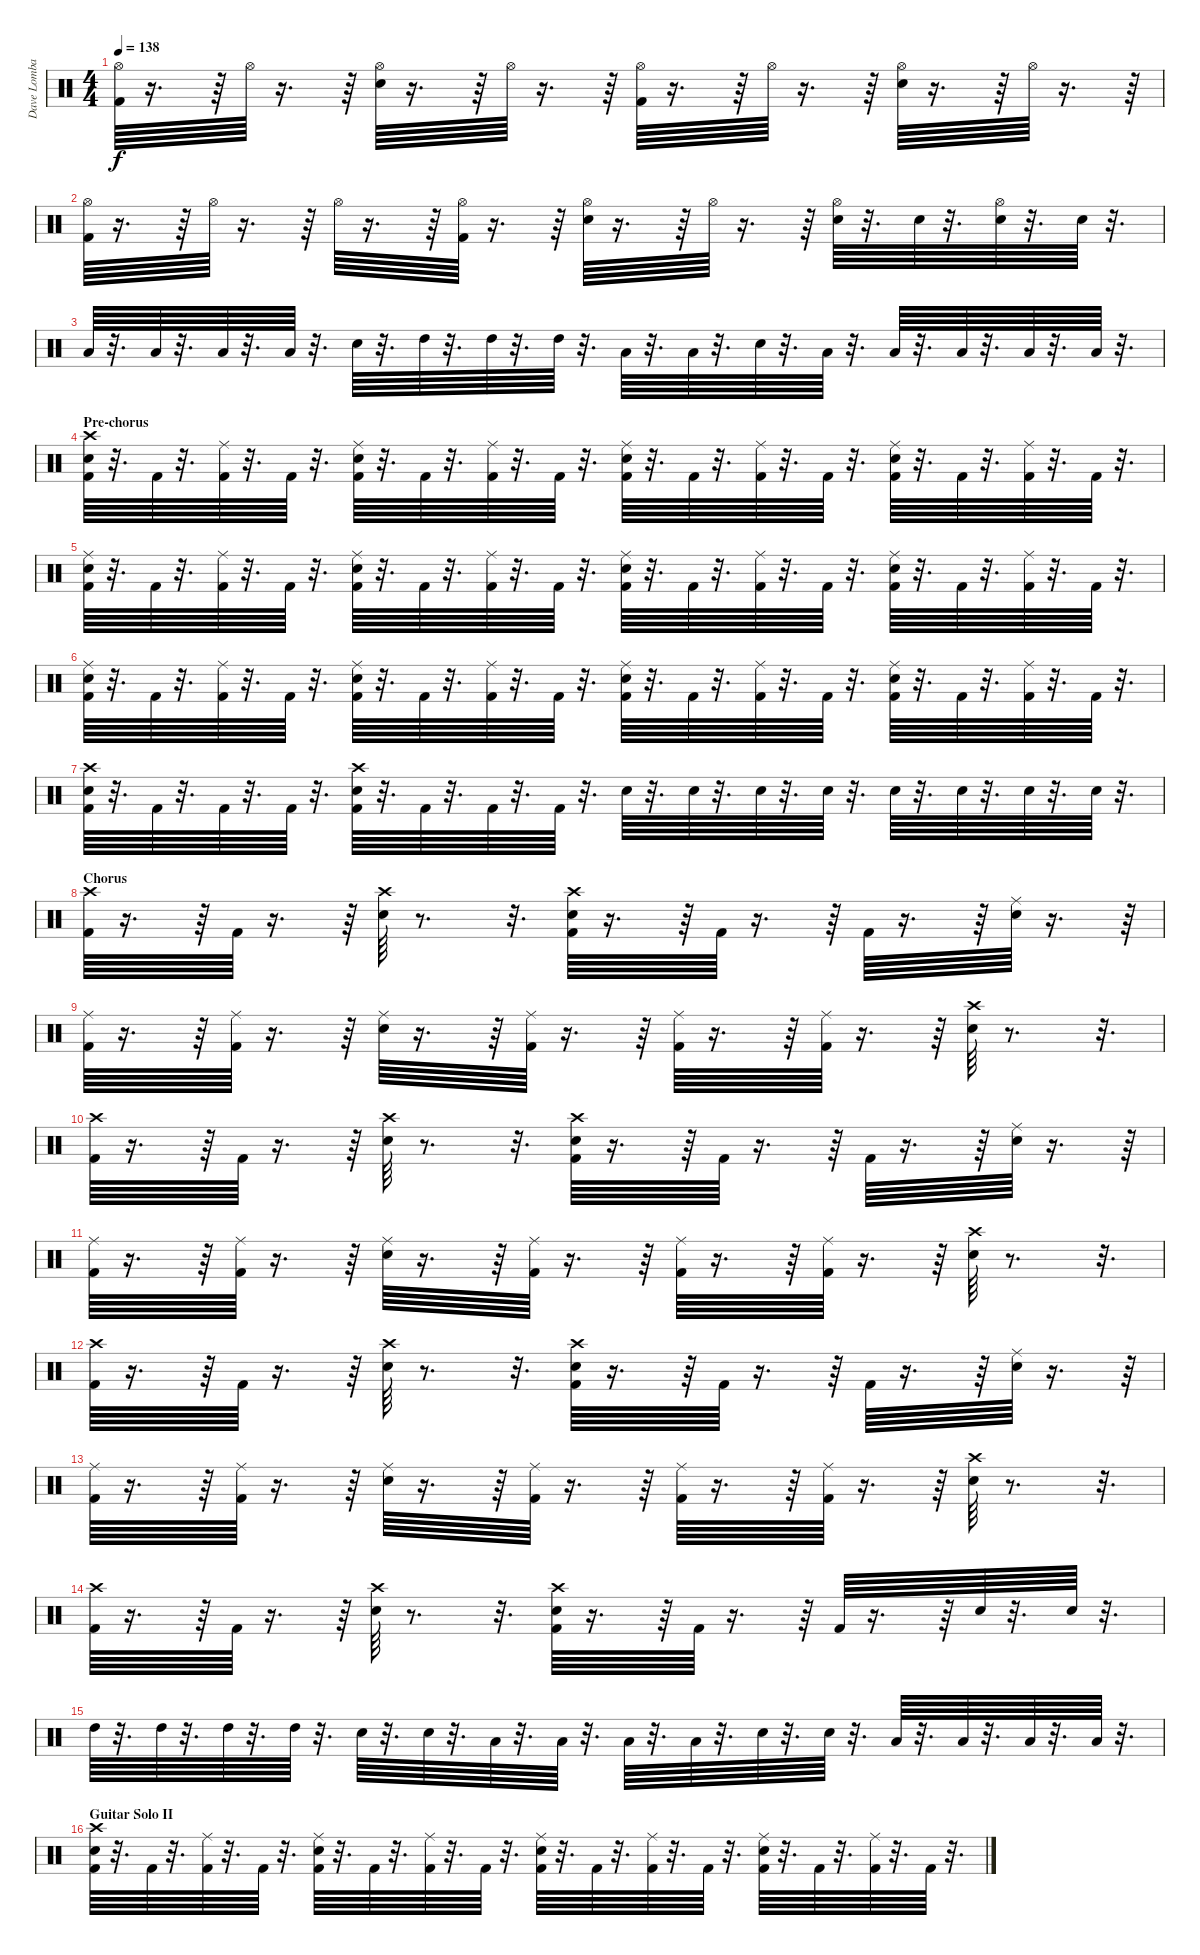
\track ("Dave Lombardo" "Dave Lomba") {instrument percussion}
\staff {score}
\articulation defaults
\ts (4 4)
\tempo 138
\clef neutral
\ks c
("Kick (hit) 2" "Hi-Hat (open)").64{dy f} r.16{d} r.64 "Hi-Hat (open)".64 r.16{d} r.64 ("Snare (hit) 2" "Hi-Hat (open)").64 r.16{d} r.64 "Hi-Hat (open)".64 r.16{d} r.64 ("Kick (hit) 2" "Hi-Hat (open)").64 r.16{d} r.64 "Hi-Hat (open)".64 r.16{d} r.64 ("Snare (hit) 2" "Hi-Hat (open)").64 r.16{d} r.64 "Hi-Hat (open)".64 r.16{d} r.64 |
("Hi-Hat (open)" "Kick (hit) 2").64 r.16{d} r.64 "Hi-Hat (open)".64 r.16{d} r.64 "Hi-Hat (open)".64 r.16{d} r.64 ("Hi-Hat (open)" "Kick (hit) 2").64 r.16{d} r.64 ("Hi-Hat (open)" "Snare (hit) 2").64 r.16{d} r.64 "Hi-Hat (open)".64 r.16{d} r.64 ("Hi-Hat (open)" "Snare (hit) 2").64 r.32{d} "Snare (hit) 2".64 r.32{d} ("Hi-Hat (open)" "Snare (hit) 2").64 r.32{d} "Snare (hit) 2".64 r.32{d} |
"Low Tom (hit)".64 r.32{d} "Low Tom (hit)".64 r.32{d} "Low Tom (hit)".64 r.32{d} "Low Tom (hit)".64 r.32{d} "Snare (hit) 2".64 r.32{d} "High Tom (hit)".64 r.32{d} "High Tom (hit)".64 r.32{d} "High Tom (hit)".64 r.32{d} "Low Tom (hit)".64 r.32{d} "Low Tom (hit)".64 r.32{d} "Snare (hit) 2".64 r.32{d} "Low Tom (hit)".64 r.32{d} "Low Floor Tom (hit)".64 r.32{d} "Low Floor Tom (hit)".64 r.32{d} "Low Floor Tom (hit)".64 r.32{d} "Low Floor Tom (hit)".64 r.32{d} |
\section ("" "Pre-chorus")
("Kick (hit) 2" "Snare (hit) 2" "Crash high (hit)").64 r.32{d} "Kick (hit) 2".64 r.32{d} ("Kick (hit) 2" "Ride (middle)").64 r.32{d} "Kick (hit) 2".64 r.32{d} ("Kick (hit) 2" "Snare (hit) 2" "Ride (middle)").64 r.32{d} "Kick (hit) 2".64 r.32{d} ("Kick (hit) 2" "Ride (middle)").64 r.32{d} "Kick (hit) 2".64 r.32{d} ("Kick (hit) 2" "Snare (hit) 2" "Ride (middle)").64 r.32{d} "Kick (hit) 2".64 r.32{d} ("Kick (hit) 2" "Ride (middle)").64 r.32{d} "Kick (hit) 2".64 r.32{d} ("Kick (hit) 2" "Snare (hit) 2" "Ride (middle)").64 r.32{d} "Kick (hit) 2".64 r.32{d} ("Kick (hit) 2" "Ride (middle)").64 r.32{d} "Kick (hit) 2".64 r.32{d} |
("Kick (hit) 2" "Snare (hit) 2" "Ride (middle)").64 r.32{d} "Kick (hit) 2".64 r.32{d} ("Kick (hit) 2" "Ride (middle)").64 r.32{d} "Kick (hit) 2".64 r.32{d} ("Kick (hit) 2" "Snare (hit) 2" "Ride (middle)").64 r.32{d} "Kick (hit) 2".64 r.32{d} ("Kick (hit) 2" "Ride (middle)").64 r.32{d} "Kick (hit) 2".64 r.32{d} ("Kick (hit) 2" "Snare (hit) 2" "Ride (middle)").64 r.32{d} "Kick (hit) 2".64 r.32{d} ("Kick (hit) 2" "Ride (middle)").64 r.32{d} "Kick (hit) 2".64 r.32{d} ("Kick (hit) 2" "Snare (hit) 2" "Ride (middle)").64 r.32{d} "Kick (hit) 2".64 r.32{d} ("Kick (hit) 2" "Ride (middle)").64 r.32{d} "Kick (hit) 2".64 r.32{d} |
("Kick (hit) 2" "Snare (hit) 2" "Ride (middle)").64 r.32{d} "Kick (hit) 2".64 r.32{d} ("Kick (hit) 2" "Ride (middle)").64 r.32{d} "Kick (hit) 2".64 r.32{d} ("Kick (hit) 2" "Snare (hit) 2" "Ride (middle)").64 r.32{d} "Kick (hit) 2".64 r.32{d} ("Kick (hit) 2" "Ride (middle)").64 r.32{d} "Kick (hit) 2".64 r.32{d} ("Kick (hit) 2" "Snare (hit) 2" "Ride (middle)").64 r.32{d} "Kick (hit) 2".64 r.32{d} ("Kick (hit) 2" "Ride (middle)").64 r.32{d} "Kick (hit) 2".64 r.32{d} ("Kick (hit) 2" "Snare (hit) 2" "Ride (middle)").64 r.32{d} "Kick (hit) 2".64 r.32{d} ("Kick (hit) 2" "Ride (middle)").64 r.32{d} "Kick (hit) 2".64 r.32{d} |
("Crash high (hit)" "Kick (hit) 2" "Snare (hit) 2").64 r.32{d} "Kick (hit) 2".64 r.32{d} "Kick (hit) 2".64 r.32{d} "Kick (hit) 2".64 r.32{d} ("Kick (hit) 2" "Crash high (hit)" "Snare (hit) 2").64 r.32{d} "Kick (hit) 2".64 r.32{d} "Kick (hit) 2".64 r.32{d} "Kick (hit) 2".64 r.32{d} "Snare (hit) 2".64 r.32{d} "Snare (hit) 2".64 r.32{d} "Snare (hit) 2".64 r.32{d} "Snare (hit) 2".64 r.32{d} "Snare (hit) 2".64 r.32{d} "Snare (hit) 2".64 r.32{d} "Snare (hit) 2".64 r.32{d} "Snare (hit) 2".64 r.32{d} |
\section ("" "Chorus")
("Kick (hit) 2" "Crash high (hit)").64 r.16{d} r.64 "Kick (hit) 2".64 r.16{d} r.64 ("Snare (hit) 2" "Crash high (hit)").64 r.8{d} r.32{d} ("Crash high (hit)" "Snare (hit) 2" "Kick (hit) 2").64 r.16{d} r.64 "Kick (hit) 2".64 r.16{d} r.64 "Kick (hit) 2".64 r.16{d} r.64 ("Ride (middle)" "Snare (hit) 2").64 r.16{d} r.64 |
("Ride (middle)" "Kick (hit) 2").64 r.16{d} r.64 ("Ride (middle)" "Kick (hit) 2").64 r.16{d} r.64 ("Ride (middle)" "Snare (hit) 2").64 r.16{d} r.64 ("Ride (middle)" "Kick (hit) 2").64 r.16{d} r.64 ("Ride (middle)" "Kick (hit) 2").64 r.16{d} r.64 ("Ride (middle)" "Kick (hit) 2").64 r.16{d} r.64 ("Snare (hit) 2" "Crash high (hit)").64 r.8{d} r.32{d} |
("Kick (hit) 2" "Crash high (hit)").64 r.16{d} r.64 "Kick (hit) 2".64 r.16{d} r.64 ("Snare (hit) 2" "Crash high (hit)").64 r.8{d} r.32{d} ("Crash high (hit)" "Snare (hit) 2" "Kick (hit) 2").64 r.16{d} r.64 "Kick (hit) 2".64 r.16{d} r.64 "Kick (hit) 2".64 r.16{d} r.64 ("Snare (hit) 2" "Ride (middle)").64 r.16{d} r.64 |
("Ride (middle)" "Kick (hit) 2").64 r.16{d} r.64 ("Ride (middle)" "Kick (hit) 2").64 r.16{d} r.64 ("Ride (middle)" "Snare (hit) 2").64 r.16{d} r.64 ("Ride (middle)" "Kick (hit) 2").64 r.16{d} r.64 ("Ride (middle)" "Kick (hit) 2").64 r.16{d} r.64 ("Ride (middle)" "Kick (hit) 2").64 r.16{d} r.64 ("Snare (hit) 2" "Crash high (hit)").64 r.8{d} r.32{d} |
("Kick (hit) 2" "Crash high (hit)").64 r.16{d} r.64 "Kick (hit) 2".64 r.16{d} r.64 ("Snare (hit) 2" "Crash high (hit)").64 r.8{d} r.32{d} ("Crash high (hit)" "Snare (hit) 2" "Kick (hit) 2").64 r.16{d} r.64 "Kick (hit) 2".64 r.16{d} r.64 "Kick (hit) 2".64 r.16{d} r.64 ("Ride (middle)" "Snare (hit) 2").64 r.16{d} r.64 |
("Ride (middle)" "Kick (hit) 2").64 r.16{d} r.64 ("Ride (middle)" "Kick (hit) 2").64 r.16{d} r.64 ("Ride (middle)" "Snare (hit) 2").64 r.16{d} r.64 ("Ride (middle)" "Kick (hit) 2").64 r.16{d} r.64 ("Ride (middle)" "Kick (hit) 2").64 r.16{d} r.64 ("Ride (middle)" "Kick (hit) 2").64 r.16{d} r.64 ("Snare (hit) 2" "Crash high (hit)").64 r.8{d} r.32{d} |
("Kick (hit) 2" "Crash high (hit)").64 r.16{d} r.64 "Kick (hit) 2".64 r.16{d} r.64 ("Snare (hit) 2" "Crash high (hit)").64 r.8{d} r.32{d} ("Crash high (hit)" "Snare (hit) 2" "Kick (hit) 2").64 r.16{d} r.64 "Kick (hit) 2".64 r.16{d} r.64 "Kick (hit) 2".64 r.16{d} r.64 "Snare (hit) 2".64 r.32{d} "Snare (hit) 2".64 r.32{d} |
"High Tom (hit)".64 r.32{d} "High Tom (hit)".64 r.32{d} "High Tom (hit)".64 r.32{d} "High Tom (hit)".64 r.32{d} "Snare (hit) 2".64 r.32{d} "Snare (hit) 2".64 r.32{d} "Low Tom (hit)".64 r.32{d} "Low Tom (hit)".64 r.32{d} "Low Tom (hit)".64 r.32{d} "Low Tom (hit)".64 r.32{d} "Snare (hit) 2".64 r.32{d} "Snare (hit) 2".64 r.32{d} "Low Floor Tom (hit)".64 r.32{d} "Low Floor Tom (hit)".64 r.32{d} "Low Floor Tom (hit)".64 r.32{d} "Low Floor Tom (hit)".64 r.32{d} |
\section ("" "Guitar Solo II")
("Kick (hit) 2" "Snare (hit) 2" "Crash high (hit)").64 r.32{d} "Kick (hit) 2".64 r.32{d} ("Kick (hit) 2" "Ride (middle)").64 r.32{d} "Kick (hit) 2".64 r.32{d} ("Kick (hit) 2" "Snare (hit) 2" "Ride (middle)").64 r.32{d} "Kick (hit) 2".64 r.32{d} ("Kick (hit) 2" "Ride (middle)").64 r.32{d} "Kick (hit) 2".64 r.32{d} ("Kick (hit) 2" "Snare (hit) 2" "Ride (middle)").64 r.32{d} "Kick (hit) 2".64 r.32{d} ("Kick (hit) 2" "Ride (middle)").64 r.32{d} "Kick (hit) 2".64 r.32{d} ("Kick (hit) 2" "Snare (hit) 2" "Ride (middle)").64 r.32{d} "Kick (hit) 2".64 r.32{d} ("Kick (hit) 2" "Ride (middle)").64 r.32{d} "Kick (hit) 2".64 r.32{d}
